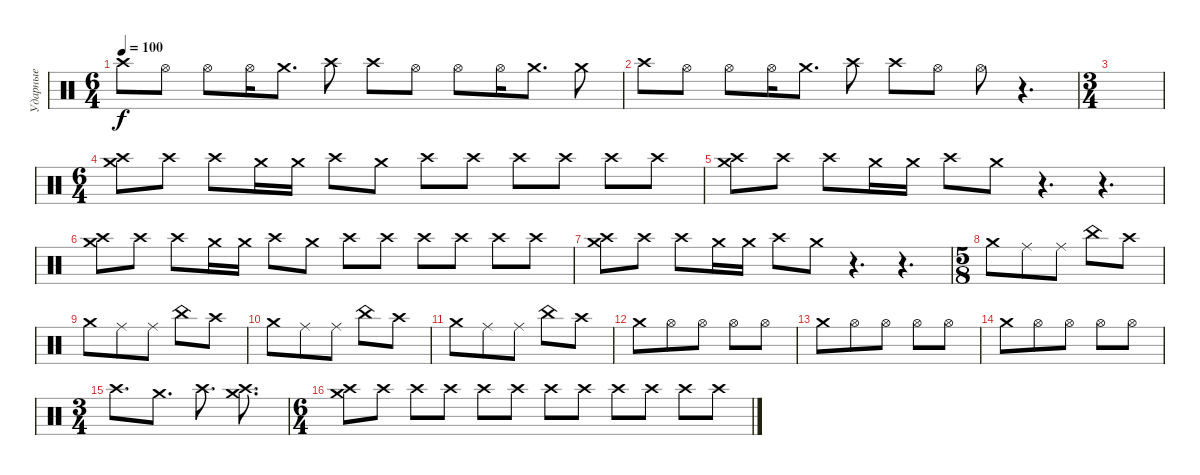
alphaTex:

\track ("Ударные" "Ударные") {instrument percussion}
\staff {score}
\articulation defaults
\ts (6 4)
\tempo 100
\clef neutral
\ks c "Crash high (hit)".8{dy f} "Hi-Hat (open)".8 "Hi-Hat (open)".8 "Hi-Hat (open)".16 "Crash medium (hit)".8{d} "Crash high (hit)".8 "Crash high (hit)".8 "Hi-Hat (open)".8 "Hi-Hat (open)".8 "Hi-Hat (open)".16 "Crash medium (hit)".8{d} "Crash medium (hit)".8
|
"Crash high (hit)".8 "Hi-Hat (open)".8 "Hi-Hat (open)".8 "Hi-Hat (open)".16 "Crash medium (hit)".8{d} "Crash high (hit)".8 "Crash high (hit)".8 "Hi-Hat (open)".8 "Hi-Hat (open)".8 r.4{d} |
\ts (3 4)
|
\ts (6 4)
("Crash high (hit)" "Crash medium (hit)").8 "Crash high (hit)".8 "Crash high (hit)".8 "Crash medium (hit)".16 "Crash medium (hit)".16 "Crash high (hit)".8 "Crash medium (hit)".8 "Crash high (hit)".8 "Crash high (hit)".8 "Crash high (hit)".8 "Crash high (hit)".8 "Crash high (hit)".8 "Crash high (hit)".8 |
("Crash high (hit)" "Crash medium (hit)").8 "Crash high (hit)".8 "Crash high (hit)".8 "Crash medium (hit)".16 "Crash medium (hit)".16 "Crash high (hit)".8 "Crash medium (hit)".8 r.4{d} r.4{d} |
("Crash high (hit)" "Crash medium (hit)").8 "Crash high (hit)".8 "Crash high (hit)".8 "Crash medium (hit)".16 "Crash medium (hit)".16 "Crash high (hit)".8 "Crash medium (hit)".8 "Crash high (hit)".8 "Crash high (hit)".8 "Crash high (hit)".8 "Crash high (hit)".8 "Crash high (hit)".8 "Crash high (hit)".8 |
("Crash high (hit)" "Crash medium (hit)").8 "Crash high (hit)".8 "Crash high (hit)".8 "Crash medium (hit)".16 "Crash medium (hit)".16 "Crash high (hit)".8 "Crash medium (hit)".8 r.4{d} r.4{d} |
\ts (5 8)
"Crash medium (hit)".8 "Ride (middle)".8 "Ride (middle)".8 "China (hit)".8 "Crash high (hit)".8 |
"Crash medium (hit)".8 "Ride (middle)".8 "Ride (middle)".8 "China (hit)".8 "Crash high (hit)".8 |
"Crash medium (hit)".8 "Ride (middle)".8 "Ride (middle)".8 "China (hit)".8 "Crash high (hit)".8 |
"Crash medium (hit)".8 "Ride (middle)".8 "Ride (middle)".8 "China (hit)".8 "Crash high (hit)".8 |
"Crash medium (hit)".8 "Hi-Hat (open)".8 "Hi-Hat (open)".8 "Hi-Hat (open)".8 "Hi-Hat (open)".8 |
"Crash medium (hit)".8 "Hi-Hat (open)".8 "Hi-Hat (open)".8 "Hi-Hat (open)".8 "Hi-Hat (open)".8 |
"Crash medium (hit)".8 "Hi-Hat (open)".8 "Hi-Hat (open)".8 "Hi-Hat (open)".8 "Hi-Hat (open)".8 |
\ts (3 4)
"Crash high (hit)".8{d} "Crash medium (hit)".8{d} "Crash high (hit)".8{d} ("Crash high (hit)" "Crash medium (hit)").8{d} |
\ts (6 4)
("Crash high (hit)" "Crash medium (hit)").8 "Crash high (hit)".8 "Crash high (hit)".8 "Crash high (hit)".8 "Crash high (hit)".8 "Crash high (hit)".8 "Crash high (hit)".8 "Crash high (hit)".8 "Crash high (hit)".8 "Crash high (hit)".8 "Crash high (hit)".8 "Crash high (hit)".8
